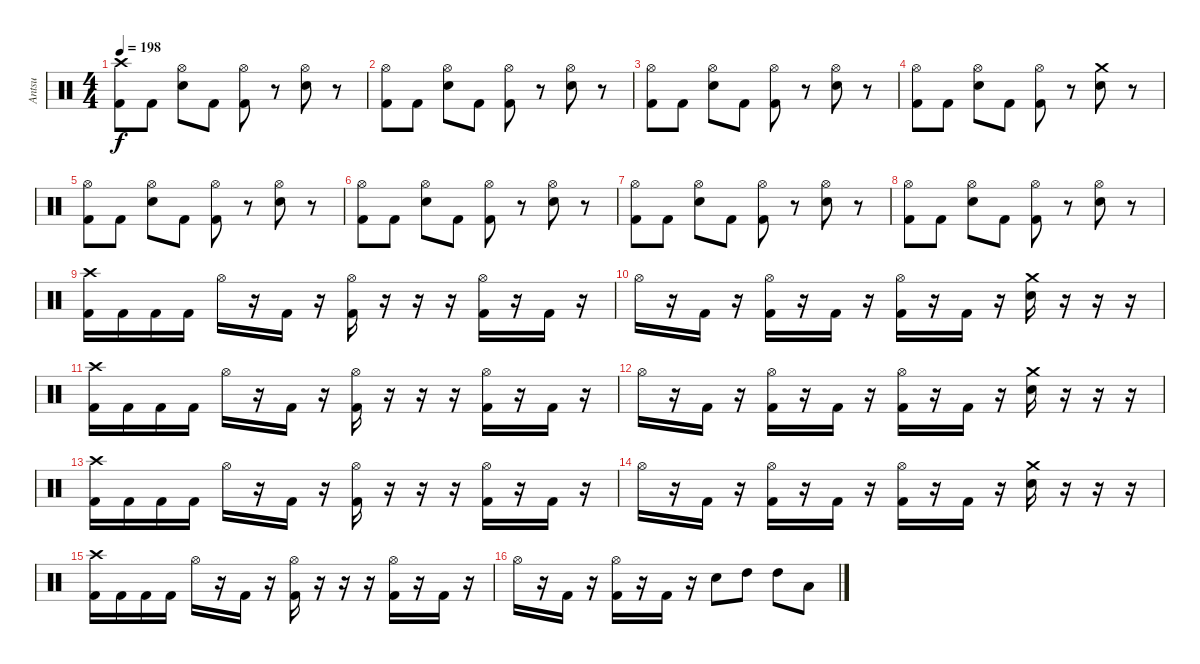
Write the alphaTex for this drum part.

\track ("Antsu" "Antsu") {instrument percussion}
\staff {score}
\articulation defaults
\ts (4 4)
\tempo 198
\clef neutral
\ks c
("Crash high (hit)" "Kick (hit) 2").8{dy f} "Kick (hit) 2".8 ("Hi-Hat (open)" "Snare (hit) 2").8 "Kick (hit) 2".8 ("Hi-Hat (open)" "Kick (hit) 2").8 r.8 ("Hi-Hat (open)" "Snare (hit) 2").8 r.8 |
("Hi-Hat (open)" "Kick (hit) 2").8 "Kick (hit) 2".8 ("Hi-Hat (open)" "Snare (hit) 2").8 "Kick (hit) 2".8 ("Hi-Hat (open)" "Kick (hit) 2").8 r.8 ("Hi-Hat (open)" "Snare (hit) 2").8 r.8 |
("Hi-Hat (open)" "Kick (hit) 2").8 "Kick (hit) 2".8 ("Hi-Hat (open)" "Snare (hit) 2").8 "Kick (hit) 2".8 ("Hi-Hat (open)" "Kick (hit) 2").8 r.8 ("Hi-Hat (open)" "Snare (hit) 2").8 r.8 |
("Hi-Hat (open)" "Kick (hit) 2").8 "Kick (hit) 2".8 ("Hi-Hat (open)" "Snare (hit) 2").8 "Kick (hit) 2".8 ("Hi-Hat (open)" "Kick (hit) 2").8 r.8 ("Crash medium (hit)" "Snare (hit) 2").8 r.8 |
("Hi-Hat (open)" "Kick (hit) 2").8 "Kick (hit) 2".8 ("Hi-Hat (open)" "Snare (hit) 2").8 "Kick (hit) 2".8 ("Hi-Hat (open)" "Kick (hit) 2").8 r.8 ("Hi-Hat (open)" "Snare (hit) 2").8 r.8 |
("Hi-Hat (open)" "Kick (hit) 2").8 "Kick (hit) 2".8 ("Hi-Hat (open)" "Snare (hit) 2").8 "Kick (hit) 2".8 ("Hi-Hat (open)" "Kick (hit) 2").8 r.8 ("Hi-Hat (open)" "Snare (hit) 2").8 r.8 |
("Hi-Hat (open)" "Kick (hit) 2").8 "Kick (hit) 2".8 ("Hi-Hat (open)" "Snare (hit) 2").8 "Kick (hit) 2".8 ("Hi-Hat (open)" "Kick (hit) 2").8 r.8 ("Hi-Hat (open)" "Snare (hit) 2").8 r.8 |
("Hi-Hat (open)" "Kick (hit) 2").8 "Kick (hit) 2".8 ("Hi-Hat (open)" "Snare (hit) 2").8 "Kick (hit) 2".8 ("Hi-Hat (open)" "Kick (hit) 2").8 r.8 ("Hi-Hat (open)" "Snare (hit) 2").8 r.8 |
("Crash high (hit)" "Kick (hit) 2").16 "Kick (hit) 2".16 "Kick (hit) 2".16 "Kick (hit) 2".16 "Hi-Hat (open)".16 r.16 "Kick (hit) 2".16 r.16 ("Hi-Hat (open)" "Kick (hit) 2").16 r.16 r.16 r.16 ("Hi-Hat (open)" "Kick (hit) 2").16 r.16 "Kick (hit) 2".16 r.16 |
"Hi-Hat (open)".16 r.16 "Kick (hit) 2".16 r.16 ("Hi-Hat (open)" "Kick (hit) 2").16 r.16 "Kick (hit) 2".16 r.16 ("Hi-Hat (open)" "Kick (hit) 2").16 r.16 "Kick (hit) 2".16 r.16 ("Crash medium (hit)" "Snare (hit) 2").16 r.16 r.16 r.16 |
("Crash high (hit)" "Kick (hit) 2").16 "Kick (hit) 2".16 "Kick (hit) 2".16 "Kick (hit) 2".16 "Hi-Hat (open)".16 r.16 "Kick (hit) 2".16 r.16 ("Hi-Hat (open)" "Kick (hit) 2").16 r.16 r.16 r.16 ("Hi-Hat (open)" "Kick (hit) 2").16 r.16 "Kick (hit) 2".16 r.16 |
"Hi-Hat (open)".16 r.16 "Kick (hit) 2".16 r.16 ("Hi-Hat (open)" "Kick (hit) 2").16 r.16 "Kick (hit) 2".16 r.16 ("Hi-Hat (open)" "Kick (hit) 2").16 r.16 "Kick (hit) 2".16 r.16 ("Crash medium (hit)" "Snare (hit) 2").16 r.16 r.16 r.16 |
("Crash high (hit)" "Kick (hit) 2").16 "Kick (hit) 2".16 "Kick (hit) 2".16 "Kick (hit) 2".16 "Hi-Hat (open)".16 r.16 "Kick (hit) 2".16 r.16 ("Hi-Hat (open)" "Kick (hit) 2").16 r.16 r.16 r.16 ("Hi-Hat (open)" "Kick (hit) 2").16 r.16 "Kick (hit) 2".16 r.16 |
"Hi-Hat (open)".16 r.16 "Kick (hit) 2".16 r.16 ("Hi-Hat (open)" "Kick (hit) 2").16 r.16 "Kick (hit) 2".16 r.16 ("Hi-Hat (open)" "Kick (hit) 2").16 r.16 "Kick (hit) 2".16 r.16 ("Crash medium (hit)" "Snare (hit) 2").16 r.16 r.16 r.16 |
("Crash high (hit)" "Kick (hit) 2").16 "Kick (hit) 2".16 "Kick (hit) 2".16 "Kick (hit) 2".16 "Hi-Hat (open)".16 r.16 "Kick (hit) 2".16 r.16 ("Hi-Hat (open)" "Kick (hit) 2").16 r.16 r.16 r.16 ("Hi-Hat (open)" "Kick (hit) 2").16 r.16 "Kick (hit) 2".16 r.16 |
"Hi-Hat (open)".16 r.16 "Kick (hit) 2".16 r.16 ("Hi-Hat (open)" "Kick (hit) 2").16 r.16 "Kick (hit) 2".16 r.16 "Snare (hit) 2".8 "High Tom (hit)".8 "High Tom (hit)".8 "Low Tom (hit)".8
